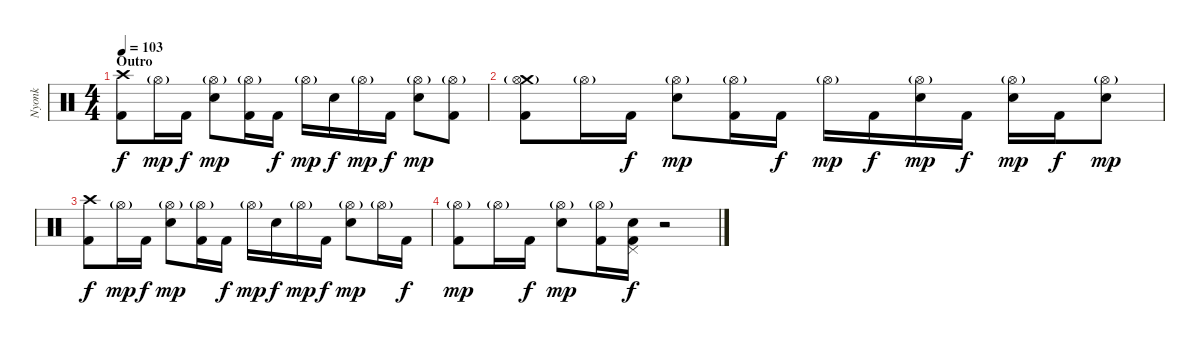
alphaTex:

\track ("Nyonk" "Nyonk") {instrument percussion}
\staff {score}
\articulation defaults
\ts (4 4)
\section ("" "Outro")
\tempo 103
\clef neutral
\ks c
("Crash high (hit)" "Kick (hit) 2").8{dy f} "Hi-Hat (open)"{g}.16{dy mp} "Kick (hit) 2".16{dy f} ("Hi-Hat (open)"{g} "Electric Snare (hit)").8{dy mp} ("Hi-Hat (open)"{g} "Kick (hit) 2").16 "Kick (hit) 2".16{dy f} "Hi-Hat (open)"{g}.16{dy mp} "Electric Snare (hit)".16{dy f} "Hi-Hat (open)"{g}.16{dy mp} "Kick (hit) 2".16{dy f} ("Hi-Hat (open)"{g} "Electric Snare (hit)").8{dy mp} ("Hi-Hat (open)"{g} "Kick (hit) 2").8 |
("Crash medium (hit)" "Hi-Hat (open)"{g} "Kick (hit) 2").8 "Hi-Hat (open)"{g}.16 "Kick (hit) 2".16{dy f} ("Hi-Hat (open)"{g} "Electric Snare (hit)").8{dy mp} ("Hi-Hat (open)"{g} "Kick (hit) 2").16 "Kick (hit) 2".16{dy f} "Hi-Hat (open)"{g}.16{dy mp} "Kick (hit) 2".16{dy f} ("Hi-Hat (open)"{g} "Electric Snare (hit)").16{dy mp} "Kick (hit) 2".16{dy f} ("Hi-Hat (open)"{g} "Electric Snare (hit)").16{dy mp} "Kick (hit) 2".16{dy f} ("Hi-Hat (open)"{g} "Electric Snare (hit)").8{dy mp} |
("Crash high (hit)" "Kick (hit) 2").8{dy f} "Hi-Hat (open)"{g}.16{dy mp} "Kick (hit) 2".16{dy f} ("Hi-Hat (open)"{g} "Electric Snare (hit)").8{dy mp} ("Hi-Hat (open)"{g} "Kick (hit) 2").16 "Kick (hit) 2".16{dy f} "Hi-Hat (open)"{g}.16{dy mp} "Electric Snare (hit)".16{dy f} "Hi-Hat (open)"{g}.16{dy mp} "Kick (hit) 2".16{dy f} ("Hi-Hat (open)"{g} "Electric Snare (hit)").8{dy mp} "Hi-Hat (open)"{g}.16 "Kick (hit) 2".16{dy f} |
("Hi-Hat (open)"{g} "Kick (hit) 2").8{dy mp} "Hi-Hat (open)"{g}.16 "Kick (hit) 2".16{dy f} ("Hi-Hat (open)"{g} "Electric Snare (hit)").8{dy mp} ("Hi-Hat (open)"{g} "Kick (hit) 2").16 ("Pedal Hi-Hat (hit)" "Electric Snare (hit)" "Kick (hit) 2").16{dy f} r.2
